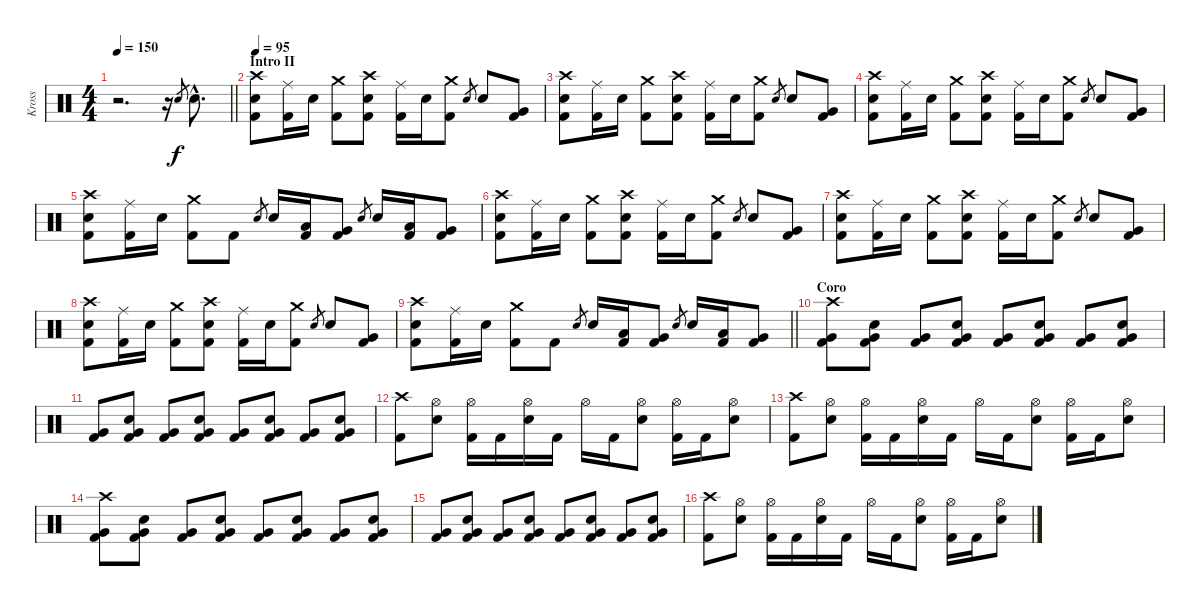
\track ("Kross" "Kross") {instrument percussion}
\staff {score}
\articulation defaults
\ts (4 4)
\tempo 150
\clef neutral
\barLineRight lightlight
\ks c
r.2{d dy f} r.16 "Electric Snare (hit)".8{gr} "Electric Snare (hit)"{hac}.8{d} |
\section ("" "Intro II")
\tempo 95
("Crash high (hit)" "Electric Snare (hit)" "Kick (hit) 2").8 ("Ride (middle)" "Kick (hit) 2").16 "Electric Snare (hit)".16 ("Crash medium (hit)" "Kick (hit) 2").8 ("Crash high (hit)" "Electric Snare (hit)" "Kick (hit) 2").8 ("Ride (middle)" "Kick (hit) 2").16 "Electric Snare (hit)".16 ("Crash medium (hit)" "Kick (hit) 2").8 "Electric Snare (hit)".8{gr} "Electric Snare (hit)".8 ("Very Low Tom (hit)" "Kick (hit) 2").8 |
("Crash high (hit)" "Electric Snare (hit)" "Kick (hit) 2").8 ("Ride (middle)" "Kick (hit) 2").16 "Electric Snare (hit)".16 ("Crash medium (hit)" "Kick (hit) 2").8 ("Crash high (hit)" "Electric Snare (hit)" "Kick (hit) 2").8 ("Ride (middle)" "Kick (hit) 2").16 "Electric Snare (hit)".16 ("Crash medium (hit)" "Kick (hit) 2").8 "Electric Snare (hit)".8{gr} "Electric Snare (hit)".8 ("Very Low Tom (hit)" "Kick (hit) 2").8 |
("Crash high (hit)" "Electric Snare (hit)" "Kick (hit) 2").8 ("Ride (middle)" "Kick (hit) 2").16 "Electric Snare (hit)".16 ("Crash medium (hit)" "Kick (hit) 2").8 ("Crash high (hit)" "Electric Snare (hit)" "Kick (hit) 2").8 ("Ride (middle)" "Kick (hit) 2").16 "Electric Snare (hit)".16 ("Crash medium (hit)" "Kick (hit) 2").8 "Electric Snare (hit)".8{gr} "Electric Snare (hit)".8 ("Very Low Tom (hit)" "Kick (hit) 2").8 |
("Crash high (hit)" "Electric Snare (hit)" "Kick (hit) 2").8 ("Ride (middle)" "Kick (hit) 2").16 "Electric Snare (hit)".16 ("Crash medium (hit)" "Kick (hit) 2").8 "Kick (hit) 2".8 "Electric Snare (hit)".8{gr} "Electric Snare (hit)".16 ("Low Tom (hit)" "Kick (hit) 2").16 ("Very Low Tom (hit)" "Kick (hit) 2").8 "Electric Snare (hit)".8{gr} "Electric Snare (hit)".16 ("Low Tom (hit)" "Kick (hit) 2").16 ("Very Low Tom (hit)" "Kick (hit) 2").8 |
("Crash high (hit)" "Electric Snare (hit)" "Kick (hit) 2").8 ("Ride (middle)" "Kick (hit) 2").16 "Electric Snare (hit)".16 ("Crash medium (hit)" "Kick (hit) 2").8 ("Crash high (hit)" "Electric Snare (hit)" "Kick (hit) 2").8 ("Ride (middle)" "Kick (hit) 2").16 "Electric Snare (hit)".16 ("Crash medium (hit)" "Kick (hit) 2").8 "Electric Snare (hit)".8{gr} "Electric Snare (hit)".8 ("Very Low Tom (hit)" "Kick (hit) 2").8 |
("Crash high (hit)" "Electric Snare (hit)" "Kick (hit) 2").8 ("Ride (middle)" "Kick (hit) 2").16 "Electric Snare (hit)".16 ("Crash medium (hit)" "Kick (hit) 2").8 ("Crash high (hit)" "Electric Snare (hit)" "Kick (hit) 2").8 ("Ride (middle)" "Kick (hit) 2").16 "Electric Snare (hit)".16 ("Crash medium (hit)" "Kick (hit) 2").8 "Electric Snare (hit)".8{gr} "Electric Snare (hit)".8 ("Very Low Tom (hit)" "Kick (hit) 2").8 |
("Crash high (hit)" "Electric Snare (hit)" "Kick (hit) 2").8 ("Ride (middle)" "Kick (hit) 2").16 "Electric Snare (hit)".16 ("Crash medium (hit)" "Kick (hit) 2").8 ("Crash high (hit)" "Electric Snare (hit)" "Kick (hit) 2").8 ("Ride (middle)" "Kick (hit) 2").16 "Electric Snare (hit)".16 ("Crash medium (hit)" "Kick (hit) 2").8 "Electric Snare (hit)".8{gr} "Electric Snare (hit)".8 ("Very Low Tom (hit)" "Kick (hit) 2").8 |
\barLineRight lightlight
("Crash high (hit)" "Electric Snare (hit)" "Kick (hit) 2").8 ("Ride (middle)" "Kick (hit) 2").16 "Electric Snare (hit)".16 ("Crash medium (hit)" "Kick (hit) 2").8 "Kick (hit) 2".8 "Electric Snare (hit)".8{gr} "Electric Snare (hit)".16 ("Low Tom (hit)" "Kick (hit) 2").16 ("Very Low Tom (hit)" "Kick (hit) 2").8 "Electric Snare (hit)".8{gr} "Electric Snare (hit)".16 ("Low Tom (hit)" "Kick (hit) 2").16 ("Very Low Tom (hit)" "Kick (hit) 2").8 |
\section ("" "Coro")
("Crash high (hit)" "Very Low Tom (hit)" "Kick (hit) 2").8 ("Very Low Tom (hit)" "Electric Snare (hit)" "Kick (hit) 2").8 ("Very Low Tom (hit)" "Kick (hit) 2").8 ("Very Low Tom (hit)" "Electric Snare (hit)" "Kick (hit) 2").8 ("Very Low Tom (hit)" "Kick (hit) 2").8 ("Very Low Tom (hit)" "Electric Snare (hit)" "Kick (hit) 2").8 ("Very Low Tom (hit)" "Kick (hit) 2").8 ("Very Low Tom (hit)" "Electric Snare (hit)" "Kick (hit) 2").8 |
("Very Low Tom (hit)" "Kick (hit) 2").8 ("Very Low Tom (hit)" "Electric Snare (hit)" "Kick (hit) 2").8 ("Very Low Tom (hit)" "Kick (hit) 2").8 ("Very Low Tom (hit)" "Electric Snare (hit)" "Kick (hit) 2").8 ("Very Low Tom (hit)" "Kick (hit) 2").8 ("Very Low Tom (hit)" "Electric Snare (hit)" "Kick (hit) 2").8 ("Very Low Tom (hit)" "Kick (hit) 2").8 ("Very Low Tom (hit)" "Electric Snare (hit)" "Kick (hit) 2").8 |
("Crash high (hit)" "Kick (hit) 2").8 ("Hi-Hat (open)" "Electric Snare (hit)").8 ("Hi-Hat (open)" "Kick (hit) 2").16 "Kick (hit) 2".16 ("Hi-Hat (open)" "Electric Snare (hit)").16 "Kick (hit) 2".16 "Hi-Hat (open)".16 "Kick (hit) 2".16 ("Hi-Hat (open)" "Electric Snare (hit)").8 ("Hi-Hat (open)" "Kick (hit) 2").16 "Kick (hit) 2".16 ("Hi-Hat (open)" "Electric Snare (hit)").8 |
("Crash high (hit)" "Kick (hit) 2").8 ("Hi-Hat (open)" "Electric Snare (hit)").8 ("Hi-Hat (open)" "Kick (hit) 2").16 "Kick (hit) 2".16 ("Hi-Hat (open)" "Electric Snare (hit)").16 "Kick (hit) 2".16 "Hi-Hat (open)".16 "Kick (hit) 2".16 ("Hi-Hat (open)" "Electric Snare (hit)").8 ("Hi-Hat (open)" "Kick (hit) 2").16 "Kick (hit) 2".16 ("Hi-Hat (open)" "Electric Snare (hit)").8 |
("Crash high (hit)" "Very Low Tom (hit)" "Kick (hit) 2").8 ("Very Low Tom (hit)" "Electric Snare (hit)" "Kick (hit) 2").8 ("Very Low Tom (hit)" "Kick (hit) 2").8 ("Very Low Tom (hit)" "Electric Snare (hit)" "Kick (hit) 2").8 ("Very Low Tom (hit)" "Kick (hit) 2").8 ("Very Low Tom (hit)" "Electric Snare (hit)" "Kick (hit) 2").8 ("Very Low Tom (hit)" "Kick (hit) 2").8 ("Very Low Tom (hit)" "Electric Snare (hit)" "Kick (hit) 2").8 |
("Very Low Tom (hit)" "Kick (hit) 2").8 ("Very Low Tom (hit)" "Electric Snare (hit)" "Kick (hit) 2").8 ("Very Low Tom (hit)" "Kick (hit) 2").8 ("Very Low Tom (hit)" "Electric Snare (hit)" "Kick (hit) 2").8 ("Very Low Tom (hit)" "Kick (hit) 2").8 ("Very Low Tom (hit)" "Electric Snare (hit)" "Kick (hit) 2").8 ("Very Low Tom (hit)" "Kick (hit) 2").8 ("Very Low Tom (hit)" "Electric Snare (hit)" "Kick (hit) 2").8 |
("Crash high (hit)" "Kick (hit) 2").8 ("Hi-Hat (open)" "Electric Snare (hit)").8 ("Hi-Hat (open)" "Kick (hit) 2").16 "Kick (hit) 2".16 ("Hi-Hat (open)" "Electric Snare (hit)").16 "Kick (hit) 2".16 "Hi-Hat (open)".16 "Kick (hit) 2".16 ("Hi-Hat (open)" "Electric Snare (hit)").8 ("Hi-Hat (open)" "Kick (hit) 2").16 "Kick (hit) 2".16 ("Hi-Hat (open)" "Electric Snare (hit)").8
